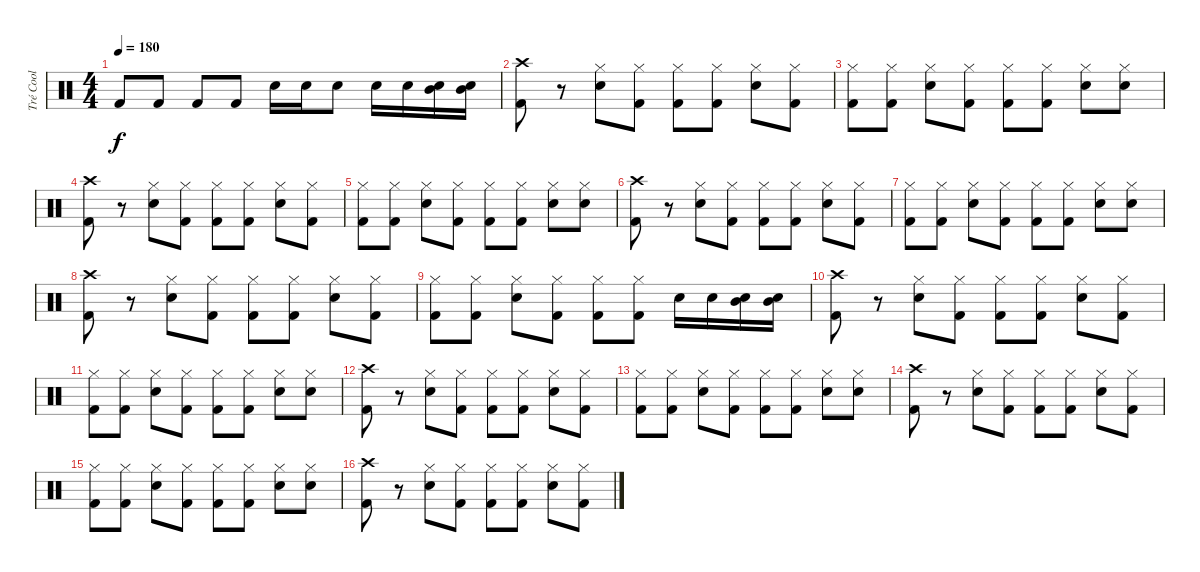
\track ("Tré Cool" "Tré Cool") {instrument percussion}
\staff {score}
\articulation defaults
\ts (4 4)
\tempo 180
\clef neutral
\ks c "Kick (hit) 2".8{dy f} "Kick (hit) 2".8 "Kick (hit) 2".8 "Kick (hit) 2".8 "Electric Snare (hit)".16 "Electric Snare (hit)".16 "Electric Snare (hit)".8 "Electric Snare (hit)".16 "Electric Snare (hit)".16
("Mid Tom (hit)" "Electric Snare (hit)").16 ("Mid Tom (hit)" "Electric Snare (hit)").16 |
("Crash high (hit)" "Kick (hit) 2").8 r.8 ("Hi-Hat (closed)" "Snare (hit) 2").8 ("Hi-Hat (closed)" "Kick (hit) 2").8 ("Hi-Hat (closed)" "Kick (hit) 2").8 ("Hi-Hat (closed)" "Kick (hit) 2").8 ("Hi-Hat (closed)" "Snare (hit) 2").8 ("Hi-Hat (closed)" "Kick (hit) 2").8 |
("Hi-Hat (closed)" "Kick (hit) 2").8 ("Hi-Hat (closed)" "Kick (hit) 2").8 ("Hi-Hat (closed)" "Snare (hit) 2").8 ("Hi-Hat (closed)" "Kick (hit) 2").8 ("Hi-Hat (closed)" "Kick (hit) 2").8 ("Hi-Hat (closed)" "Kick (hit) 2").8 ("Hi-Hat (closed)" "Snare (hit) 2").8 ("Hi-Hat (closed)" "Snare (hit) 2").8 |
("Crash high (hit)" "Kick (hit) 2").8 r.8 ("Hi-Hat (closed)" "Snare (hit) 2").8 ("Hi-Hat (closed)" "Kick (hit) 2").8 ("Hi-Hat (closed)" "Kick (hit) 2").8 ("Hi-Hat (closed)" "Kick (hit) 2").8 ("Hi-Hat (closed)" "Snare (hit) 2").8 ("Hi-Hat (closed)" "Kick (hit) 2").8 |
("Hi-Hat (closed)" "Kick (hit) 2").8 ("Hi-Hat (closed)" "Kick (hit) 2").8 ("Hi-Hat (closed)" "Snare (hit) 2").8 ("Hi-Hat (closed)" "Kick (hit) 2").8 ("Hi-Hat (closed)" "Kick (hit) 2").8 ("Hi-Hat (closed)" "Kick (hit) 2").8 ("Hi-Hat (closed)" "Snare (hit) 2").8 ("Hi-Hat (closed)" "Snare (hit) 2").8 |
("Crash high (hit)" "Kick (hit) 2").8 r.8 ("Hi-Hat (closed)" "Snare (hit) 2").8 ("Hi-Hat (closed)" "Kick (hit) 2").8 ("Hi-Hat (closed)" "Kick (hit) 2").8 ("Hi-Hat (closed)" "Kick (hit) 2").8 ("Hi-Hat (closed)" "Snare (hit) 2").8 ("Hi-Hat (closed)" "Kick (hit) 2").8 |
("Hi-Hat (closed)" "Kick (hit) 2").8 ("Hi-Hat (closed)" "Kick (hit) 2").8 ("Hi-Hat (closed)" "Snare (hit) 2").8 ("Hi-Hat (closed)" "Kick (hit) 2").8 ("Hi-Hat (closed)" "Kick (hit) 2").8 ("Hi-Hat (closed)" "Kick (hit) 2").8 ("Hi-Hat (closed)" "Snare (hit) 2").8 ("Hi-Hat (closed)" "Snare (hit) 2").8 |
("Crash high (hit)" "Kick (hit) 2").8 r.8 ("Hi-Hat (closed)" "Snare (hit) 2").8 ("Hi-Hat (closed)" "Kick (hit) 2").8 ("Hi-Hat (closed)" "Kick (hit) 2").8 ("Hi-Hat (closed)" "Kick (hit) 2").8 ("Hi-Hat (closed)" "Snare (hit) 2").8 ("Hi-Hat (closed)" "Kick (hit) 2").8 |
("Hi-Hat (closed)" "Kick (hit) 2").8 ("Hi-Hat (closed)" "Kick (hit) 2").8 ("Hi-Hat (closed)" "Snare (hit) 2").8 ("Hi-Hat (closed)" "Kick (hit) 2").8 ("Hi-Hat (closed)" "Kick (hit) 2").8 ("Hi-Hat (closed)" "Kick (hit) 2").8 "Electric Snare (hit)".16 "Electric Snare (hit)".16 ("Mid Tom (hit)" "Electric Snare (hit)").16 ("Mid Tom (hit)" "Electric Snare (hit)").16 |
("Crash high (hit)" "Kick (hit) 2").8 r.8 ("Hi-Hat (closed)" "Snare (hit) 2").8 ("Hi-Hat (closed)" "Kick (hit) 2").8 ("Hi-Hat (closed)" "Kick (hit) 2").8 ("Hi-Hat (closed)" "Kick (hit) 2").8 ("Hi-Hat (closed)" "Snare (hit) 2").8 ("Hi-Hat (closed)" "Kick (hit) 2").8 |
("Hi-Hat (closed)" "Kick (hit) 2").8 ("Hi-Hat (closed)" "Kick (hit) 2").8 ("Hi-Hat (closed)" "Snare (hit) 2").8 ("Hi-Hat (closed)" "Kick (hit) 2").8 ("Hi-Hat (closed)" "Kick (hit) 2").8 ("Hi-Hat (closed)" "Kick (hit) 2").8 ("Hi-Hat (closed)" "Snare (hit) 2").8 ("Hi-Hat (closed)" "Snare (hit) 2").8 |
("Crash high (hit)" "Kick (hit) 2").8 r.8 ("Hi-Hat (closed)" "Snare (hit) 2").8 ("Hi-Hat (closed)" "Kick (hit) 2").8 ("Hi-Hat (closed)" "Kick (hit) 2").8 ("Hi-Hat (closed)" "Kick (hit) 2").8 ("Hi-Hat (closed)" "Snare (hit) 2").8 ("Hi-Hat (closed)" "Kick (hit) 2").8 |
("Hi-Hat (closed)" "Kick (hit) 2").8 ("Hi-Hat (closed)" "Kick (hit) 2").8 ("Hi-Hat (closed)" "Snare (hit) 2").8 ("Hi-Hat (closed)" "Kick (hit) 2").8 ("Hi-Hat (closed)" "Kick (hit) 2").8 ("Hi-Hat (closed)" "Kick (hit) 2").8 ("Hi-Hat (closed)" "Snare (hit) 2").8 ("Hi-Hat (closed)" "Snare (hit) 2").8 |
("Crash high (hit)" "Kick (hit) 2").8 r.8 ("Hi-Hat (closed)" "Snare (hit) 2").8 ("Hi-Hat (closed)" "Kick (hit) 2").8 ("Hi-Hat (closed)" "Kick (hit) 2").8 ("Hi-Hat (closed)" "Kick (hit) 2").8 ("Hi-Hat (closed)" "Snare (hit) 2").8 ("Hi-Hat (closed)" "Kick (hit) 2").8 |
("Hi-Hat (closed)" "Kick (hit) 2").8 ("Hi-Hat (closed)" "Kick (hit) 2").8 ("Hi-Hat (closed)" "Snare (hit) 2").8 ("Hi-Hat (closed)" "Kick (hit) 2").8 ("Hi-Hat (closed)" "Kick (hit) 2").8 ("Hi-Hat (closed)" "Kick (hit) 2").8 ("Hi-Hat (closed)" "Snare (hit) 2").8 ("Hi-Hat (closed)" "Snare (hit) 2").8 |
("Crash high (hit)" "Kick (hit) 2").8 r.8 ("Hi-Hat (closed)" "Snare (hit) 2").8 ("Hi-Hat (closed)" "Kick (hit) 2").8 ("Hi-Hat (closed)" "Kick (hit) 2").8 ("Hi-Hat (closed)" "Kick (hit) 2").8 ("Hi-Hat (closed)" "Snare (hit) 2").8 ("Hi-Hat (closed)" "Kick (hit) 2").8
